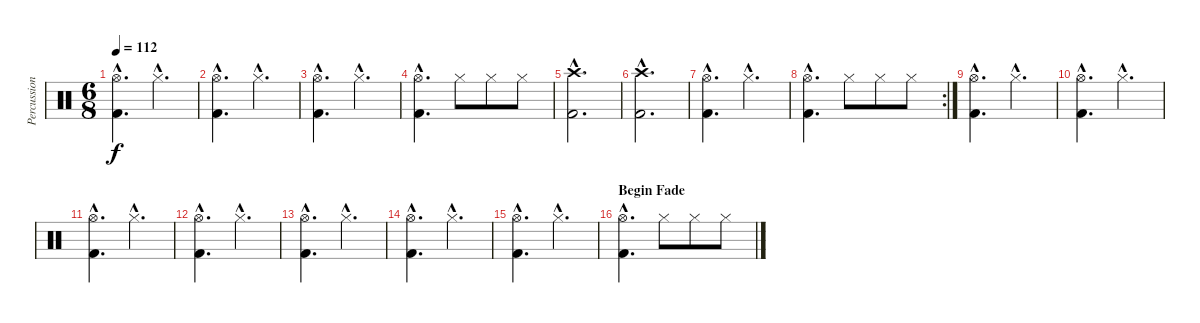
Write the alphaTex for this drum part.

\track ("Percussion" "Percussion") {instrument percussion}
\staff {score}
\articulation defaults
\ts (6 8)
\tempo 112
\clef neutral
\ks c
("Hi-Hat (open)"{hac} "Kick (hit) 2"{hac}).4{d dy f} "Hi-Hat (closed)"{hac}.4{d} |
("Hi-Hat (open)"{hac} "Kick (hit) 2"{hac}).4{d} "Hi-Hat (closed)"{hac}.4{d} |
("Hi-Hat (open)"{hac} "Kick (hit) 2"{hac}).4{d} "Hi-Hat (closed)"{hac}.4{d} |
("Hi-Hat (open)"{hac} "Kick (hit) 2"{hac}).4{d} "Hi-Hat (closed)".8 "Hi-Hat (closed)".8 "Hi-Hat (closed)".8 |
("Crash high (hit)"{hac} "Kick (hit) 2"{hac}).2{d} |
("Crash high (hit)"{hac} "Kick (hit) 2"{hac}).2{d} |
("Hi-Hat (open)"{hac} "Kick (hit) 2"{hac}).4{d} "Hi-Hat (closed)"{hac}.4{d} |
\rc 2
("Hi-Hat (open)"{hac} "Kick (hit) 2"{hac}).4{d} "Hi-Hat (closed)".8 "Hi-Hat (closed)".8 "Hi-Hat (closed)".8 |
("Hi-Hat (open)"{hac} "Kick (hit) 2"{hac}).4{d} "Hi-Hat (closed)"{hac}.4{d} |
("Hi-Hat (open)"{hac} "Kick (hit) 2"{hac}).4{d} "Hi-Hat (closed)"{hac}.4{d} |
("Hi-Hat (open)"{hac} "Kick (hit) 2"{hac}).4{d} "Hi-Hat (closed)"{hac}.4{d} |
("Hi-Hat (open)"{hac} "Kick (hit) 2"{hac}).4{d} "Hi-Hat (closed)"{hac}.4{d} |
("Hi-Hat (open)"{hac} "Kick (hit) 2"{hac}).4{d} "Hi-Hat (closed)"{hac}.4{d} |
("Hi-Hat (open)"{hac} "Kick (hit) 2"{hac}).4{d} "Hi-Hat (closed)"{hac}.4{d} |
("Hi-Hat (open)"{hac} "Kick (hit) 2"{hac}).4{d} "Hi-Hat (closed)"{hac}.4{d} |
\section ("" "Begin Fade")
("Hi-Hat (open)"{hac} "Kick (hit) 2"{hac}).4{d} "Hi-Hat (closed)".8 "Hi-Hat (closed)".8 "Hi-Hat (closed)".8
